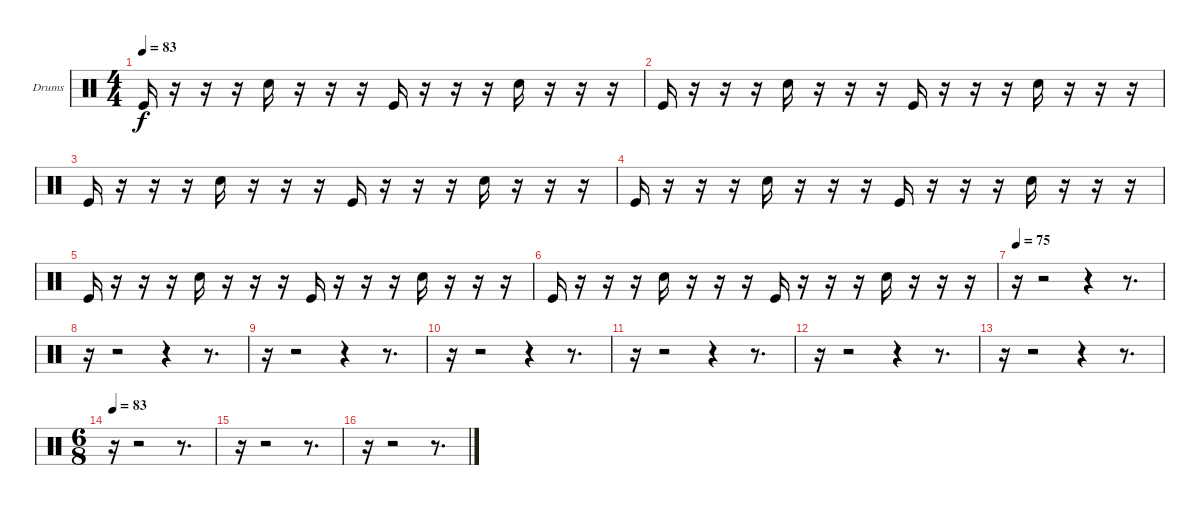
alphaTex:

\bracketExtendMode groupsimilarinstruments
\firstSystemTrackNameOrientation horizontal
\otherSystemsTrackNameOrientation horizontal
\track ("Drumkit" "Drums") {instrument percussion}
\staff {score}
\articulation defaults
\ts (4 4)
\tempo 83
\clef neutral
\ks c "Kick (hit)".16{dy f}
r.16 r.16 r.16 "Snare (hit) 2".16 r.16 r.16 r.16 "Kick (hit)".16 r.16 r.16 r.16 "Snare (hit) 2".16 r.16 r.16 r.16 |
"Kick (hit)".16 r.16 r.16 r.16 "Snare (hit) 2".16 r.16 r.16 r.16 "Kick (hit)".16 r.16 r.16 r.16 "Snare (hit) 2".16 r.16 r.16 r.16 |
"Kick (hit)".16 r.16 r.16 r.16 "Snare (hit) 2".16 r.16 r.16 r.16 "Kick (hit)".16 r.16 r.16 r.16 "Snare (hit) 2".16 r.16 r.16 r.16 |
"Kick (hit)".16 r.16 r.16 r.16 "Snare (hit) 2".16 r.16 r.16 r.16 "Kick (hit)".16 r.16 r.16 r.16 "Snare (hit) 2".16 r.16 r.16 r.16 |
"Kick (hit)".16 r.16 r.16 r.16 "Snare (hit) 2".16 r.16 r.16 r.16 "Kick (hit)".16 r.16 r.16 r.16 "Snare (hit) 2".16 r.16 r.16 r.16 |
"Kick (hit)".16 r.16 r.16 r.16 "Snare (hit) 2".16 r.16 r.16 r.16 "Kick (hit)".16 r.16 r.16 r.16 "Snare (hit) 2".16 r.16 r.16 r.16 |
\tempo 75
r.16 r.2 r.4 r.8{d} |
r.16 r.2 r.4 r.8{d} |
r.16 r.2 r.4 r.8{d} |
r.16 r.2 r.4 r.8{d} |
r.16 r.2 r.4 r.8{d} |
r.16 r.2 r.4 r.8{d} |
r.16 r.2 r.4 r.8{d} |
\ts (6 8)
\beaming (8 3 3)
\tempo 83
r.16 r.2 r.8{d} |
r.16 r.2 r.8{d} |
r.16 r.2 r.8{d}
